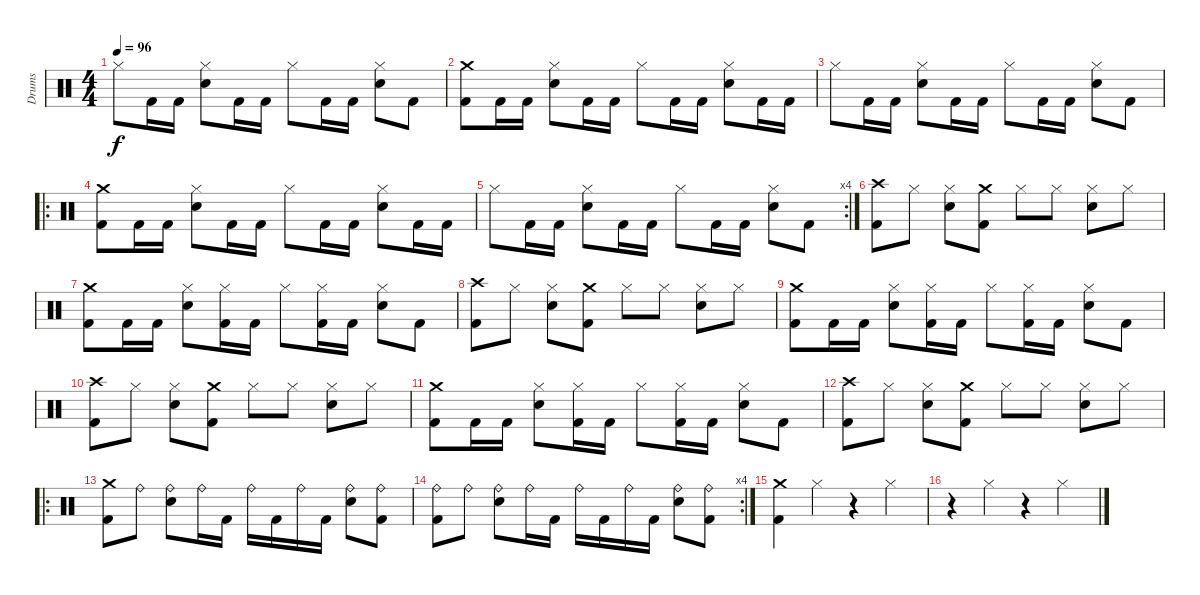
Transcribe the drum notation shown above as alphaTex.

\track ("Drums" "Drums") {instrument percussion}
\staff {score}
\articulation defaults
\ts (4 4)
\tempo 96
\clef neutral
\ks c "Hi-Hat (closed)".8{dy f} "Kick (hit) 2".16 "Kick (hit) 2".16
("Hi-Hat (closed)" "Snare (hit) 2").8 "Kick (hit) 2".16 "Kick (hit) 2".16 "Hi-Hat (closed)".8 "Kick (hit) 2".16 "Kick (hit) 2".16 ("Hi-Hat (closed)" "Snare (hit) 2").8 "Kick (hit) 2".8 |
("Crash medium (hit)" "Kick (hit) 2").8 "Kick (hit) 2".16 "Kick (hit) 2".16 ("Hi-Hat (closed)" "Snare (hit) 2").8 "Kick (hit) 2".16 "Kick (hit) 2".16 "Hi-Hat (closed)".8 "Kick (hit) 2".16 "Kick (hit) 2".16 ("Hi-Hat (closed)" "Snare (hit) 2").8 "Kick (hit) 2".16 "Kick (hit) 2".16 |
"Hi-Hat (closed)".8 "Kick (hit) 2".16 "Kick (hit) 2".16 ("Hi-Hat (closed)" "Snare (hit) 2").8 "Kick (hit) 2".16 "Kick (hit) 2".16 "Hi-Hat (closed)".8 "Kick (hit) 2".16 "Kick (hit) 2".16 ("Hi-Hat (closed)" "Snare (hit) 2").8 "Kick (hit) 2".8 |
\ro
("Crash medium (hit)" "Kick (hit) 2").8 "Kick (hit) 2".16 "Kick (hit) 2".16 ("Hi-Hat (closed)" "Snare (hit) 2").8 "Kick (hit) 2".16 "Kick (hit) 2".16 "Hi-Hat (closed)".8 "Kick (hit) 2".16 "Kick (hit) 2".16 ("Hi-Hat (closed)" "Snare (hit) 2").8 "Kick (hit) 2".16 "Kick (hit) 2".16 |
\rc 4 "Hi-Hat (closed)".8 "Kick (hit) 2".16 "Kick (hit) 2".16
("Hi-Hat (closed)" "Snare (hit) 2").8 "Kick (hit) 2".16 "Kick (hit) 2".16 "Hi-Hat (closed)".8 "Kick (hit) 2".16 "Kick (hit) 2".16 ("Hi-Hat (closed)" "Snare (hit) 2").8 "Kick (hit) 2".8 |
("Crash high (hit)" "Kick (hit) 2").8 "Hi-Hat (closed)".8 ("Hi-Hat (closed)" "Snare (hit) 2").8 ("Crash medium (hit)" "Kick (hit) 2").8 "Hi-Hat (closed)".8 "Hi-Hat (closed)".8 ("Hi-Hat (closed)" "Snare (hit) 2").8 "Hi-Hat (closed)".8 |
("Crash medium (hit)" "Kick (hit) 2").8 "Kick (hit) 2".16 "Kick (hit) 2".16 ("Hi-Hat (closed)" "Snare (hit) 2").8 ("Hi-Hat (closed)" "Kick (hit) 2").16 "Kick (hit) 2".16 "Hi-Hat (closed)".8 ("Hi-Hat (closed)" "Kick (hit) 2").16 "Kick (hit) 2".16 ("Hi-Hat (closed)" "Snare (hit) 2").8 "Kick (hit) 2".8 |
("Crash high (hit)" "Kick (hit) 2").8 "Hi-Hat (closed)".8 ("Hi-Hat (closed)" "Snare (hit) 2").8 ("Crash medium (hit)" "Kick (hit) 2").8 "Hi-Hat (closed)".8 "Hi-Hat (closed)".8 ("Hi-Hat (closed)" "Snare (hit) 2").8 "Hi-Hat (closed)".8 |
("Crash medium (hit)" "Kick (hit) 2").8 "Kick (hit) 2".16 "Kick (hit) 2".16 ("Hi-Hat (closed)" "Snare (hit) 2").8 ("Hi-Hat (closed)" "Kick (hit) 2").16 "Kick (hit) 2".16 "Hi-Hat (closed)".8 ("Hi-Hat (closed)" "Kick (hit) 2").16 "Kick (hit) 2".16 ("Hi-Hat (closed)" "Snare (hit) 2").8 "Kick (hit) 2".8 |
("Crash high (hit)" "Kick (hit) 2").8 "Hi-Hat (closed)".8 ("Hi-Hat (closed)" "Snare (hit) 2").8 ("Crash medium (hit)" "Kick (hit) 2").8 "Hi-Hat (closed)".8 "Hi-Hat (closed)".8 ("Hi-Hat (closed)" "Snare (hit) 2").8 "Hi-Hat (closed)".8 |
("Crash medium (hit)" "Kick (hit) 2").8 "Kick (hit) 2".16 "Kick (hit) 2".16 ("Hi-Hat (closed)" "Snare (hit) 2").8 ("Hi-Hat (closed)" "Kick (hit) 2").16 "Kick (hit) 2".16 "Hi-Hat (closed)".8 ("Hi-Hat (closed)" "Kick (hit) 2").16 "Kick (hit) 2".16 ("Hi-Hat (closed)" "Snare (hit) 2").8 "Kick (hit) 2".8 |
("Crash high (hit)" "Kick (hit) 2").8 "Hi-Hat (closed)".8 ("Hi-Hat (closed)" "Snare (hit) 2").8 ("Crash medium (hit)" "Kick (hit) 2").8 "Hi-Hat (closed)".8 "Hi-Hat (closed)".8 ("Hi-Hat (closed)" "Snare (hit) 2").8 "Hi-Hat (closed)".8 |
\ro
("Crash medium (hit)" "Kick (hit) 2").8 "Ride (bell)".8 ("Ride (bell)" "Snare (hit) 2").8 "Ride (bell)".16 "Kick (hit) 2".16 "Ride (bell)".16 "Kick (hit) 2".16 "Ride (bell)".16 "Kick (hit) 2".16 ("Ride (bell)" "Snare (hit) 2").8 ("Ride (bell)" "Kick (hit) 2").8 |
\rc 4
("Ride (bell)" "Kick (hit) 2").8 "Ride (bell)".8 ("Ride (bell)" "Snare (hit) 2").8 "Ride (bell)".16 "Kick (hit) 2".16 "Ride (bell)".16 "Kick (hit) 2".16 "Ride (bell)".16 "Kick (hit) 2".16 ("Ride (bell)" "Snare (hit) 2").8 ("Ride (bell)" "Kick (hit) 2").8 |
("Crash medium (hit)" "Kick (hit) 2").4 "Hi-Hat (closed)".4 r.4 "Hi-Hat (closed)".4 |
r.4 "Hi-Hat (closed)".4 r.4 "Hi-Hat (closed)".4
